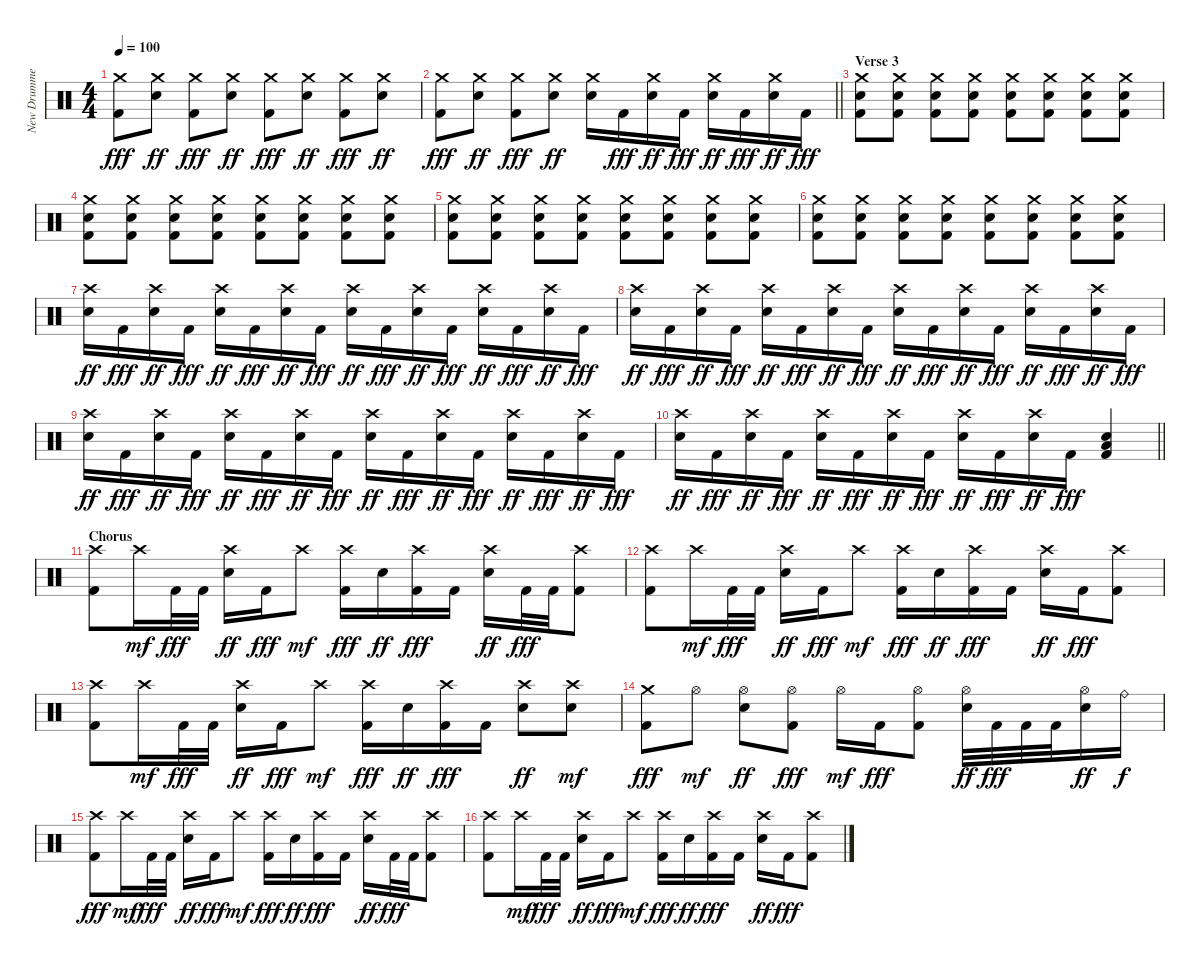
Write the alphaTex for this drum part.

\track ("New Drummer" "New Drumme") {instrument percussion}
\staff {score}
\articulation defaults
\ts (4 4)
\tempo 100
\clef neutral
\ks c
("Crash medium (hit)" "Kick (hit) 2").8{dy fff} ("Crash medium (hit)" "Electric Snare (hit)").8{dy ff} ("Crash medium (hit)" "Kick (hit) 2").8{dy fff} ("Crash medium (hit)" "Electric Snare (hit)").8{dy ff} ("Crash medium (hit)" "Kick (hit) 2").8{dy fff} ("Crash medium (hit)" "Electric Snare (hit)").8{dy ff} ("Crash medium (hit)" "Kick (hit) 2").8{dy fff} ("Crash medium (hit)" "Electric Snare (hit)").8{dy ff} |
\barLineRight lightlight
("Crash medium (hit)" "Kick (hit) 2").8{dy fff} ("Crash medium (hit)" "Electric Snare (hit)").8{dy ff} ("Crash medium (hit)" "Kick (hit) 2").8{dy fff} ("Crash medium (hit)" "Electric Snare (hit)").8{dy ff} ("Crash medium (hit)" "Electric Snare (hit)").16 "Kick (hit) 2".16{dy fff} ("Crash medium (hit)" "Electric Snare (hit)").16{dy ff} "Kick (hit) 2".16{dy fff} ("Crash medium (hit)" "Electric Snare (hit)").16{dy ff} "Kick (hit) 2".16{dy fff} ("Crash medium (hit)" "Electric Snare (hit)").16{dy ff} "Kick (hit) 2".16{dy fff} |
\section ("" "Verse 3")
("Crash medium (hit)" "Electric Snare (hit)" "Kick (hit) 2").8 ("Crash medium (hit)" "Electric Snare (hit)" "Kick (hit) 2").8 ("Crash medium (hit)" "Electric Snare (hit)" "Kick (hit) 2").8 ("Crash medium (hit)" "Electric Snare (hit)" "Kick (hit) 2").8 ("Crash medium (hit)" "Electric Snare (hit)" "Kick (hit) 2").8 ("Crash medium (hit)" "Electric Snare (hit)" "Kick (hit) 2").8 ("Crash medium (hit)" "Electric Snare (hit)" "Kick (hit) 2").8 ("Crash medium (hit)" "Electric Snare (hit)" "Kick (hit) 2").8 |
("Crash medium (hit)" "Electric Snare (hit)" "Kick (hit) 2").8 ("Crash medium (hit)" "Electric Snare (hit)" "Kick (hit) 2").8 ("Crash medium (hit)" "Electric Snare (hit)" "Kick (hit) 2").8 ("Crash medium (hit)" "Electric Snare (hit)" "Kick (hit) 2").8 ("Crash medium (hit)" "Electric Snare (hit)" "Kick (hit) 2").8 ("Crash medium (hit)" "Electric Snare (hit)" "Kick (hit) 2").8 ("Crash medium (hit)" "Electric Snare (hit)" "Kick (hit) 2").8 ("Crash medium (hit)" "Electric Snare (hit)" "Kick (hit) 2").8 |
("Crash medium (hit)" "Electric Snare (hit)" "Kick (hit) 2").8 ("Crash medium (hit)" "Electric Snare (hit)" "Kick (hit) 2").8 ("Crash medium (hit)" "Electric Snare (hit)" "Kick (hit) 2").8 ("Crash medium (hit)" "Electric Snare (hit)" "Kick (hit) 2").8 ("Crash medium (hit)" "Electric Snare (hit)" "Kick (hit) 2").8 ("Crash medium (hit)" "Electric Snare (hit)" "Kick (hit) 2").8 ("Crash medium (hit)" "Electric Snare (hit)" "Kick (hit) 2").8 ("Crash medium (hit)" "Electric Snare (hit)" "Kick (hit) 2").8 |
("Crash medium (hit)" "Electric Snare (hit)" "Kick (hit) 2").8 ("Crash medium (hit)" "Electric Snare (hit)" "Kick (hit) 2").8 ("Crash medium (hit)" "Electric Snare (hit)" "Kick (hit) 2").8 ("Crash medium (hit)" "Electric Snare (hit)" "Kick (hit) 2").8 ("Crash medium (hit)" "Electric Snare (hit)" "Kick (hit) 2").8 ("Crash medium (hit)" "Electric Snare (hit)" "Kick (hit) 2").8 ("Crash medium (hit)" "Electric Snare (hit)" "Kick (hit) 2").8 ("Crash medium (hit)" "Electric Snare (hit)" "Kick (hit) 2").8 |
("Crash high (hit)" "Electric Snare (hit)").16{dy ff} "Kick (hit) 2".16{dy fff} ("Crash high (hit)" "Electric Snare (hit)").16{dy ff} "Kick (hit) 2".16{dy fff} ("Crash high (hit)" "Electric Snare (hit)").16{dy ff} "Kick (hit) 2".16{dy fff} ("Crash high (hit)" "Electric Snare (hit)").16{dy ff} "Kick (hit) 2".16{dy fff} ("Crash high (hit)" "Electric Snare (hit)").16{dy ff} "Kick (hit) 2".16{dy fff} ("Crash high (hit)" "Electric Snare (hit)").16{dy ff} "Kick (hit) 2".16{dy fff} ("Crash high (hit)" "Electric Snare (hit)").16{dy ff} "Kick (hit) 2".16{dy fff} ("Crash high (hit)" "Electric Snare (hit)").16{dy ff} "Kick (hit) 2".16{dy fff} |
("Crash high (hit)" "Electric Snare (hit)").16{dy ff} "Kick (hit) 2".16{dy fff} ("Crash high (hit)" "Electric Snare (hit)").16{dy ff} "Kick (hit) 2".16{dy fff} ("Crash high (hit)" "Electric Snare (hit)").16{dy ff} "Kick (hit) 2".16{dy fff} ("Crash high (hit)" "Electric Snare (hit)").16{dy ff} "Kick (hit) 2".16{dy fff} ("Crash high (hit)" "Electric Snare (hit)").16{dy ff} "Kick (hit) 2".16{dy fff} ("Crash high (hit)" "Electric Snare (hit)").16{dy ff} "Kick (hit) 2".16{dy fff} ("Crash high (hit)" "Electric Snare (hit)").16{dy ff} "Kick (hit) 2".16{dy fff} ("Crash high (hit)" "Electric Snare (hit)").16{dy ff} "Kick (hit) 2".16{dy fff} |
("Crash high (hit)" "Electric Snare (hit)").16{dy ff} "Kick (hit) 2".16{dy fff} ("Crash high (hit)" "Electric Snare (hit)").16{dy ff} "Kick (hit) 2".16{dy fff} ("Crash high (hit)" "Electric Snare (hit)").16{dy ff} "Kick (hit) 2".16{dy fff} ("Crash high (hit)" "Electric Snare (hit)").16{dy ff} "Kick (hit) 2".16{dy fff} ("Crash high (hit)" "Electric Snare (hit)").16{dy ff} "Kick (hit) 2".16{dy fff} ("Crash high (hit)" "Electric Snare (hit)").16{dy ff} "Kick (hit) 2".16{dy fff} ("Crash high (hit)" "Electric Snare (hit)").16{dy ff} "Kick (hit) 2".16{dy fff} ("Crash high (hit)" "Electric Snare (hit)").16{dy ff} "Kick (hit) 2".16{dy fff} |
\barLineRight lightlight
("Crash high (hit)" "Electric Snare (hit)").16{dy ff} "Kick (hit) 2".16{dy fff} ("Crash high (hit)" "Electric Snare (hit)").16{dy ff} "Kick (hit) 2".16{dy fff} ("Crash high (hit)" "Electric Snare (hit)").16{dy ff} "Kick (hit) 2".16{dy fff} ("Crash high (hit)" "Electric Snare (hit)").16{dy ff} "Kick (hit) 2".16{dy fff} ("Crash high (hit)" "Electric Snare (hit)").16{dy ff} "Kick (hit) 2".16{dy fff} ("Crash high (hit)" "Electric Snare (hit)").16{dy ff} "Kick (hit) 2".16{dy fff} ("Electric Snare (hit)" "Low Floor Tom (hit)" "Kick (hit) 2").4 |
\section ("" "Chorus")
("Crash high (hit)" "Kick (hit) 2").8 "Crash high (hit)".16{dy mf} "Kick (hit) 2".32{dy fff} "Kick (hit) 2".32 ("Crash high (hit)" "Electric Snare (hit)").16{dy ff} "Kick (hit) 2".16{dy fff} "Crash high (hit)".8{dy mf} ("Crash high (hit)" "Kick (hit) 2").16{dy fff} "Electric Snare (hit)".16{dy ff} ("Crash high (hit)" "Kick (hit) 2").16{dy fff} "Kick (hit) 2".16 ("Crash high (hit)" "Electric Snare (hit)").16{dy ff} "Kick (hit) 2".32{dy fff} "Kick (hit) 2".32 ("Crash high (hit)" "Kick (hit) 2").8 |
("Crash high (hit)" "Kick (hit) 2").8 "Crash high (hit)".16{dy mf} "Kick (hit) 2".32{dy fff} "Kick (hit) 2".32 ("Crash high (hit)" "Electric Snare (hit)").16{dy ff} "Kick (hit) 2".16{dy fff} "Crash high (hit)".8{dy mf} ("Crash high (hit)" "Kick (hit) 2").16{dy fff} "Electric Snare (hit)".16{dy ff} ("Crash high (hit)" "Kick (hit) 2").16{dy fff} "Kick (hit) 2".16 ("Crash high (hit)" "Electric Snare (hit)").16{dy ff} "Kick (hit) 2".16{dy fff} ("Crash high (hit)" "Kick (hit) 2").8 |
("Crash high (hit)" "Kick (hit) 2").8 "Crash high (hit)".16{dy mf} "Kick (hit) 2".32{dy fff} "Kick (hit) 2".32 ("Crash high (hit)" "Electric Snare (hit)").16{dy ff} "Kick (hit) 2".16{dy fff} "Crash high (hit)".8{dy mf} ("Crash high (hit)" "Kick (hit) 2").16{dy fff} "Electric Snare (hit)".16{dy ff} ("Crash high (hit)" "Kick (hit) 2").16{dy fff} "Kick (hit) 2".16 ("Crash high (hit)" "Electric Snare (hit)").8{dy ff} ("Crash high (hit)" "Electric Snare (hit)").8{dy mf} |
("Crash medium (hit)" "Kick (hit) 2").8{dy fff} "Hi-Hat (open)".8{dy mf} ("Hi-Hat (open)" "Electric Snare (hit)").8{dy ff} ("Hi-Hat (open)" "Kick (hit) 2").8{dy fff} "Hi-Hat (open)".16{dy mf} "Kick (hit) 2".16{dy fff} ("Hi-Hat (open)" "Kick (hit) 2").8 ("Hi-Hat (open)" "Electric Snare (hit)").32{dy ff} "Kick (hit) 2".32{dy fff} "Kick (hit) 2".32 "Kick (hit) 2".32 ("Hi-Hat (open)" "Electric Snare (hit)").16{dy ff} "Ride (bell)".16{dy f} |
("Crash high (hit)" "Kick (hit) 2").8{dy fff} "Crash high (hit)".16{dy mf} "Kick (hit) 2".32{dy fff} "Kick (hit) 2".32 ("Crash high (hit)" "Electric Snare (hit)").16{dy ff} "Kick (hit) 2".16{dy fff} "Crash high (hit)".8{dy mf} ("Crash high (hit)" "Kick (hit) 2").16{dy fff} "Electric Snare (hit)".16{dy ff} ("Crash high (hit)" "Kick (hit) 2").16{dy fff} "Kick (hit) 2".16 ("Crash high (hit)" "Electric Snare (hit)").16{dy ff} "Kick (hit) 2".32{dy fff} "Kick (hit) 2".32 ("Crash high (hit)" "Kick (hit) 2").8 |
("Crash high (hit)" "Kick (hit) 2").8 "Crash high (hit)".16{dy mf} "Kick (hit) 2".32{dy fff} "Kick (hit) 2".32 ("Crash high (hit)" "Electric Snare (hit)").16{dy ff} "Kick (hit) 2".16{dy fff} "Crash high (hit)".8{dy mf} ("Crash high (hit)" "Kick (hit) 2").16{dy fff} "Electric Snare (hit)".16{dy ff} ("Crash high (hit)" "Kick (hit) 2").16{dy fff} "Kick (hit) 2".16 ("Crash high (hit)" "Electric Snare (hit)").16{dy ff} "Kick (hit) 2".16{dy fff} ("Crash high (hit)" "Kick (hit) 2").8
